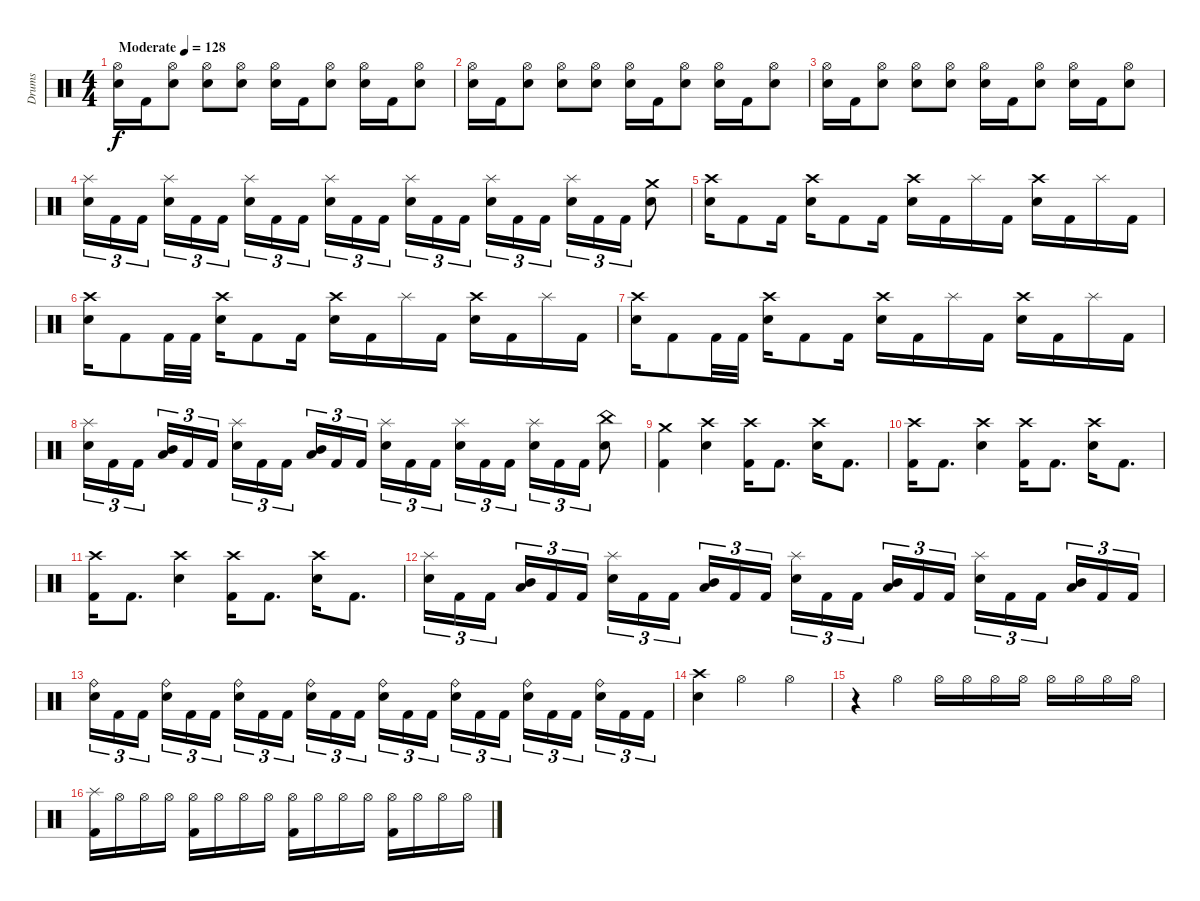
\track ("Drums" "Drums") {instrument percussion}
\staff {score}
\articulation defaults
\ts (4 4)
\tempo (128 "Moderate")
\clef neutral
\ks c
("Hi-Hat (open)" "Electric Snare (hit)").16{dy f} "Kick (hit) 2".16 ("Hi-Hat (open)" "Electric Snare (hit)").8 ("Hi-Hat (open)" "Electric Snare (hit)").8 ("Hi-Hat (open)" "Electric Snare (hit)").8 ("Hi-Hat (open)" "Electric Snare (hit)").16 "Kick (hit) 2".16 ("Hi-Hat (open)" "Electric Snare (hit)").8 ("Hi-Hat (open)" "Electric Snare (hit)").16 "Kick (hit) 2".16 ("Hi-Hat (open)" "Electric Snare (hit)").8 |
("Hi-Hat (open)" "Electric Snare (hit)").16 "Kick (hit) 2".16 ("Hi-Hat (open)" "Electric Snare (hit)").8 ("Hi-Hat (open)" "Electric Snare (hit)").8 ("Hi-Hat (open)" "Electric Snare (hit)").8 ("Hi-Hat (open)" "Electric Snare (hit)").16 "Kick (hit) 2".16 ("Hi-Hat (open)" "Electric Snare (hit)").8 ("Hi-Hat (open)" "Electric Snare (hit)").16 "Kick (hit) 2".16 ("Hi-Hat (open)" "Electric Snare (hit)").8 |
("Hi-Hat (open)" "Electric Snare (hit)").16 "Kick (hit) 2".16 ("Hi-Hat (open)" "Electric Snare (hit)").8 ("Hi-Hat (open)" "Electric Snare (hit)").8 ("Hi-Hat (open)" "Electric Snare (hit)").8 ("Hi-Hat (open)" "Electric Snare (hit)").16 "Kick (hit) 2".16 ("Hi-Hat (open)" "Electric Snare (hit)").8 ("Hi-Hat (open)" "Electric Snare (hit)").16 "Kick (hit) 2".16 ("Hi-Hat (open)" "Electric Snare (hit)").8 |
("Splash (hit)" "Electric Snare (hit)").16{tu (3 2)} "Kick (hit) 2".16{tu (3 2)} "Kick (hit) 2".16{tu (3 2) beam splitsecondary} ("Splash (hit)" "Electric Snare (hit)").16{tu (3 2)} "Kick (hit) 2".16{tu (3 2)} "Kick (hit) 2".16{tu (3 2)} ("Splash (hit)" "Electric Snare (hit)").16{tu (3 2)} "Kick (hit) 2".16{tu (3 2)} "Kick (hit) 2".16{tu (3 2) beam splitsecondary} ("Splash (hit)" "Electric Snare (hit)").16{tu (3 2)} "Kick (hit) 2".16{tu (3 2)} "Kick (hit) 2".16{tu (3 2)} ("Splash (hit)" "Electric Snare (hit)").16{tu (3 2)} "Kick (hit) 2".16{tu (3 2)} "Kick (hit) 2".16{tu (3 2) beam splitsecondary} ("Splash (hit)" "Electric Snare (hit)").16{tu (3 2)} "Kick (hit) 2".16{tu (3 2)} "Kick (hit) 2".16{tu (3 2)} ("Splash (hit)" "Electric Snare (hit)").16{tu (3 2)} "Kick (hit) 2".16{tu (3 2)} "Kick (hit) 2".16{tu (3 2)} ("Crash medium (hit)" "Electric Snare (hit)").8 |
("Crash high (hit)" "Electric Snare (hit)").16 "Kick (hit) 2".8 "Kick (hit) 2".16 ("Crash high (hit)" "Electric Snare (hit)").16 "Kick (hit) 2".8 "Kick (hit) 2".16 ("Crash high (hit)" "Electric Snare (hit)").16 "Kick (hit) 2".16 "Splash (hit)".16 "Kick (hit) 2".16 ("Crash high (hit)" "Electric Snare (hit)").16 "Kick (hit) 2".16 "Splash (hit)".16 "Kick (hit) 2".16 |
("Crash high (hit)" "Electric Snare (hit)").16 "Kick (hit) 2".8 "Kick (hit) 2".32 "Kick (hit) 2".32 ("Crash high (hit)" "Electric Snare (hit)").16 "Kick (hit) 2".8 "Kick (hit) 2".16 ("Crash high (hit)" "Electric Snare (hit)").16 "Kick (hit) 2".16 "Splash (hit)".16 "Kick (hit) 2".16 ("Crash high (hit)" "Electric Snare (hit)").16 "Kick (hit) 2".16 "Splash (hit)".16 "Kick (hit) 2".16 |
("Crash high (hit)" "Electric Snare (hit)").16 "Kick (hit) 2".8 "Kick (hit) 2".32 "Kick (hit) 2".32 ("Crash high (hit)" "Electric Snare (hit)").16 "Kick (hit) 2".8 "Kick (hit) 2".16 ("Crash high (hit)" "Electric Snare (hit)").16 "Kick (hit) 2".16 "Splash (hit)".16 "Kick (hit) 2".16 ("Crash high (hit)" "Electric Snare (hit)").16 "Kick (hit) 2".16 "Splash (hit)".16 "Kick (hit) 2".16 |
("Splash (hit)" "Electric Snare (hit)").16{tu (3 2)} "Kick (hit) 2".16{tu (3 2)} "Kick (hit) 2".16{tu (3 2) beam splitsecondary} ("Mid Tom (hit)" "Low Tom (hit)").16{tu (3 2)} "Kick (hit) 2".16{tu (3 2)} "Kick (hit) 2".16{tu (3 2)} ("Splash (hit)" "Electric Snare (hit)").16{tu (3 2)} "Kick (hit) 2".16{tu (3 2)} "Kick (hit) 2".16{tu (3 2) beam splitsecondary} ("Mid Tom (hit)" "Low Tom (hit)").16{tu (3 2)} "Kick (hit) 2".16{tu (3 2)} "Kick (hit) 2".16{tu (3 2)} ("Splash (hit)" "Electric Snare (hit)").16{tu (3 2)} "Kick (hit) 2".16{tu (3 2)} "Kick (hit) 2".16{tu (3 2) beam splitsecondary} ("Splash (hit)" "Electric Snare (hit)").16{tu (3 2)} "Kick (hit) 2".16{tu (3 2)} "Kick (hit) 2".16{tu (3 2)} ("Splash (hit)" "Electric Snare (hit)").16{tu (3 2)} "Kick (hit) 2".16{tu (3 2)} "Kick (hit) 2".16{tu (3 2)} ("China (hit)" "Electric Snare (hit)").8 |
("Crash medium (hit)" "Kick (hit) 2").4 ("Crash high (hit)" "Electric Snare (hit)").4 ("Crash high (hit)" "Kick (hit) 2").16 "Kick (hit) 2".8{d} ("Crash high (hit)" "Electric Snare (hit)").16 "Kick (hit) 2".8{d} |
("Crash high (hit)" "Kick (hit) 2").16 "Kick (hit) 2".8{d} ("Crash high (hit)" "Electric Snare (hit)").4 ("Crash high (hit)" "Kick (hit) 2").16 "Kick (hit) 2".8{d} ("Crash high (hit)" "Electric Snare (hit)").16 "Kick (hit) 2".8{d} |
("Crash high (hit)" "Kick (hit) 2").16 "Kick (hit) 2".8{d} ("Crash high (hit)" "Electric Snare (hit)").4 ("Crash high (hit)" "Kick (hit) 2").16 "Kick (hit) 2".8{d} ("Crash high (hit)" "Electric Snare (hit)").16 "Kick (hit) 2".8{d} |
("Splash (hit)" "Electric Snare (hit)").16{tu (3 2)} "Kick (hit) 2".16{tu (3 2)} "Kick (hit) 2".16{tu (3 2) beam splitsecondary} ("Mid Tom (hit)" "Low Tom (hit)").16{tu (3 2)} "Kick (hit) 2".16{tu (3 2)} "Kick (hit) 2".16{tu (3 2)} ("Splash (hit)" "Electric Snare (hit)").16{tu (3 2)} "Kick (hit) 2".16{tu (3 2)} "Kick (hit) 2".16{tu (3 2) beam splitsecondary} ("Mid Tom (hit)" "Low Tom (hit)").16{tu (3 2)} "Kick (hit) 2".16{tu (3 2)} "Kick (hit) 2".16{tu (3 2)} ("Splash (hit)" "Electric Snare (hit)").16{tu (3 2)} "Kick (hit) 2".16{tu (3 2)} "Kick (hit) 2".16{tu (3 2) beam splitsecondary} ("Mid Tom (hit)" "Low Tom (hit)").16{tu (3 2)} "Kick (hit) 2".16{tu (3 2)} "Kick (hit) 2".16{tu (3 2)} ("Splash (hit)" "Electric Snare (hit)").16{tu (3 2)} "Kick (hit) 2".16{tu (3 2)} "Kick (hit) 2".16{tu (3 2) beam splitsecondary} ("Mid Tom (hit)" "Low Tom (hit)").16{tu (3 2)} "Kick (hit) 2".16{tu (3 2)} "Kick (hit) 2".16{tu (3 2)} |
("Ride (bell)" "Electric Snare (hit)").16{tu (3 2)} "Kick (hit) 2".16{tu (3 2)} "Kick (hit) 2".16{tu (3 2) beam splitsecondary} ("Ride (bell)" "Electric Snare (hit)").16{tu (3 2)} "Kick (hit) 2".16{tu (3 2)} "Kick (hit) 2".16{tu (3 2)} ("Ride (bell)" "Electric Snare (hit)").16{tu (3 2)} "Kick (hit) 2".16{tu (3 2)} "Kick (hit) 2".16{tu (3 2) beam splitsecondary} ("Ride (bell)" "Electric Snare (hit)").16{tu (3 2)} "Kick (hit) 2".16{tu (3 2)} "Kick (hit) 2".16{tu (3 2)} ("Ride (bell)" "Electric Snare (hit)").16{tu (3 2)} "Kick (hit) 2".16{tu (3 2)} "Kick (hit) 2".16{tu (3 2) beam splitsecondary} ("Ride (bell)" "Electric Snare (hit)").16{tu (3 2)} "Kick (hit) 2".16{tu (3 2)} "Kick (hit) 2".16{tu (3 2)} ("Ride (bell)" "Electric Snare (hit)").16{tu (3 2)} "Kick (hit) 2".16{tu (3 2)} "Kick (hit) 2".16{tu (3 2) beam splitsecondary} ("Ride (bell)" "Electric Snare (hit)").16{tu (3 2)} "Kick (hit) 2".16{tu (3 2)} "Kick (hit) 2".16{tu (3 2)} |
("Crash high (hit)" "Electric Snare (hit)").4 "Hi-Hat (open)".2 "Hi-Hat (open)".4 |
r.4 "Hi-Hat (open)".4 "Hi-Hat (open)".16 "Hi-Hat (open)".16 "Hi-Hat (open)".16 "Hi-Hat (open)".16 "Hi-Hat (open)".16 "Hi-Hat (open)".16 "Hi-Hat (open)".16 "Hi-Hat (open)".16 |
("Splash (hit)" "Kick (hit) 2").16 "Hi-Hat (open)".16 "Hi-Hat (open)".16 "Hi-Hat (open)".16 ("Hi-Hat (open)" "Kick (hit) 2").16 "Hi-Hat (open)".16 "Hi-Hat (open)".16 "Hi-Hat (open)".16 ("Hi-Hat (open)" "Kick (hit) 2").16 "Hi-Hat (open)".16 "Hi-Hat (open)".16 "Hi-Hat (open)".16 ("Hi-Hat (open)" "Kick (hit) 2").16 "Hi-Hat (open)".16 "Hi-Hat (open)".16 "Hi-Hat (open)".16
